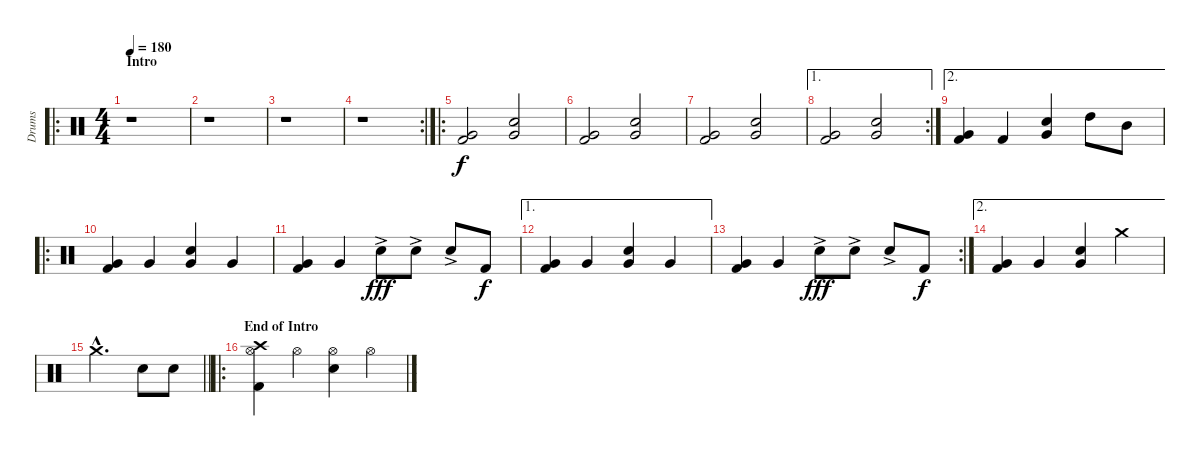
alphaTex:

\track ("Drums" "Drums") {instrument percussion}
\staff {score}
\articulation defaults
\ro
\ts (4 4)
\section ("" "Intro")
\tempo 180
\clef neutral
\ks c
r.1{dy f} |
r.1 |
r.1 |
\rc 2
r.1 |
\ro
("Very Low Tom (hit)" "Kick (hit) 2").2 ("Very Low Tom (hit)" "Snare (hit) 2").2 |
("Very Low Tom (hit)" "Kick (hit) 2").2 ("Very Low Tom (hit)" "Snare (hit) 2").2 |
("Very Low Tom (hit)" "Kick (hit) 2").2 ("Very Low Tom (hit)" "Snare (hit) 2").2 |
\ae 1
\rc 2
("Very Low Tom (hit)" "Kick (hit) 2").2 ("Very Low Tom (hit)" "Snare (hit) 2").2 |
\ae 2
("Very Low Tom (hit)" "Kick (hit) 2").4 "Kick (hit) 2".4 ("Very Low Tom (hit)" "Snare (hit) 2").4 "High Tom (hit)".8 "Mid Tom (hit)".8 |
\ro
("Very Low Tom (hit)" "Kick (hit) 2").4 "Very Low Tom (hit)".4 ("Very Low Tom (hit)" "Snare (hit) 2").4 "Very Low Tom (hit)".4 |
("Very Low Tom (hit)" "Kick (hit) 2").4 "Very Low Tom (hit)".4 "Snare (hit) 2"{ac}.8{dy fff} "Snare (hit) 2"{ac}.8 "Snare (hit) 2"{ac}.8 "Kick (hit) 2".8{dy f} |
\ae 1
("Very Low Tom (hit)" "Kick (hit) 2").4 "Very Low Tom (hit)".4 ("Very Low Tom (hit)" "Snare (hit) 2").4 "Very Low Tom (hit)".4 |
\rc 2
("Very Low Tom (hit)" "Kick (hit) 2").4 "Very Low Tom (hit)".4 "Snare (hit) 2"{ac}.8{dy fff} "Snare (hit) 2"{ac}.8 "Snare (hit) 2"{ac}.8 "Kick (hit) 2".8{dy f} |
\ae 2
("Very Low Tom (hit)" "Kick (hit) 2").4 "Very Low Tom (hit)".4 ("Very Low Tom (hit)" "Snare (hit) 2").4 "Crash medium (hit)".4 |
\barLineRight lightlight "Crash medium (hit)"{hac}.2{d} "Snare (hit) 2".8 "Snare (hit) 2".8
|
\ro
\section ("" "End of Intro")
("Crash high (hit)" "Hi-Hat (open)" "Kick (hit) 2").4 "Hi-Hat (open)".4 ("Hi-Hat (open)" "Snare (hit) 2").4 "Hi-Hat (open)".4
